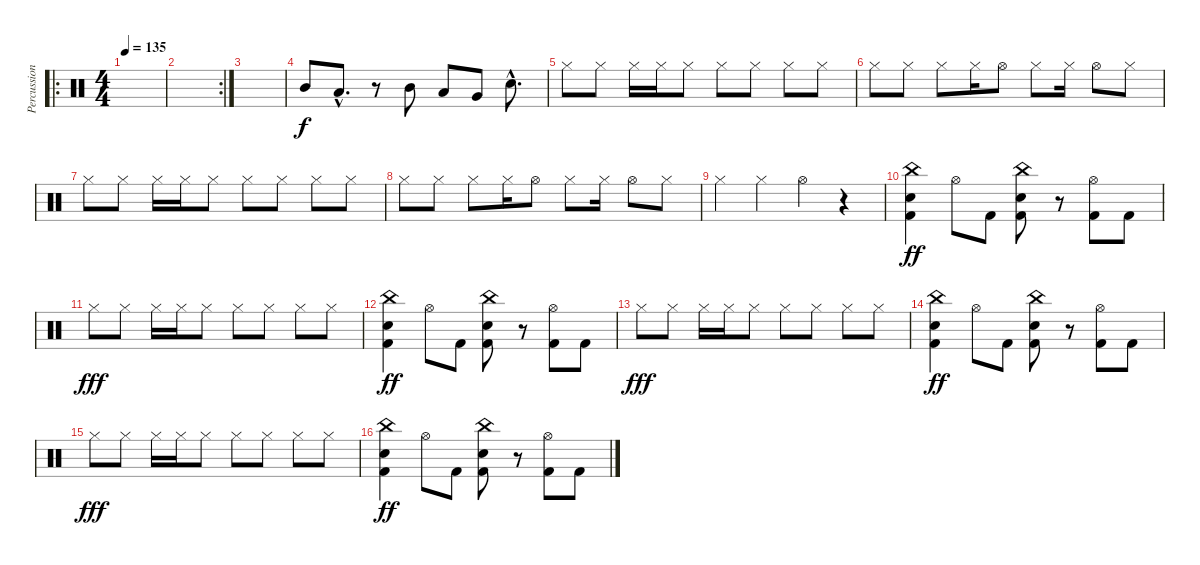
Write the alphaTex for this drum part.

\track ("Percussion" "Percussion") {instrument percussion}
\staff {score}
\articulation defaults
\ro
\ts (4 4)
\tempo 135
\clef neutral
\ks c
|
\rc 2
|
|
"Mid Tom (hit)".8 "Low Tom (hit)"{hac}.8{d} r.8 "Mid Tom (hit)".8 "Low Tom (hit)".8 "Very Low Tom (hit)".8 "Electric Snare (hit)"{hac}.8{d} |
"Hi-Hat (closed)".8 "Hi-Hat (closed)".8 "Hi-Hat (closed)".16 "Hi-Hat (closed)".16 "Hi-Hat (closed)".8 "Hi-Hat (closed)".8 "Hi-Hat (closed)".8 "Hi-Hat (closed)".8 "Hi-Hat (closed)".8 |
"Hi-Hat (closed)".8 "Hi-Hat (closed)".8 "Hi-Hat (closed)".8 "Hi-Hat (closed)".16 "Hi-Hat (open)".8 "Hi-Hat (closed)".8 "Hi-Hat (closed)".16 "Hi-Hat (open)".8 "Hi-Hat (closed)".8 |
"Hi-Hat (closed)".8 "Hi-Hat (closed)".8 "Hi-Hat (closed)".16 "Hi-Hat (closed)".16 "Hi-Hat (closed)".8 "Hi-Hat (closed)".8 "Hi-Hat (closed)".8 "Hi-Hat (closed)".8 "Hi-Hat (closed)".8 |
"Hi-Hat (closed)".8 "Hi-Hat (closed)".8 "Hi-Hat (closed)".8 "Hi-Hat (closed)".16 "Hi-Hat (open)".8 "Hi-Hat (closed)".8 "Hi-Hat (closed)".16 "Hi-Hat (open)".8 "Hi-Hat (closed)".8 |
"Hi-Hat (closed)".4 "Hi-Hat (closed)".4 "Hi-Hat (open)".4 r.4 |
("China (hit)" "Snare (hit) 2" "Kick (hit) 2").4{dy ff} "Hi-Hat (open)".8 "Kick (hit) 2".8 ("China (hit)" "Snare (hit) 2" "Kick (hit) 2").8 r.8 ("Hi-Hat (open)" "Kick (hit) 2").8 "Kick (hit) 2".8 |
"Hi-Hat (closed)".8{dy fff} "Hi-Hat (closed)".8 "Hi-Hat (closed)".16 "Hi-Hat (closed)".16 "Hi-Hat (closed)".8 "Hi-Hat (closed)".8 "Hi-Hat (closed)".8 "Hi-Hat (closed)".8 "Hi-Hat (closed)".8 |
("China (hit)" "Snare (hit) 2" "Kick (hit) 2").4{dy ff} "Hi-Hat (open)".8 "Kick (hit) 2".8 ("China (hit)" "Snare (hit) 2" "Kick (hit) 2").8 r.8 ("Hi-Hat (open)" "Kick (hit) 2").8 "Kick (hit) 2".8 |
"Hi-Hat (closed)".8{dy fff} "Hi-Hat (closed)".8 "Hi-Hat (closed)".16 "Hi-Hat (closed)".16 "Hi-Hat (closed)".8 "Hi-Hat (closed)".8 "Hi-Hat (closed)".8 "Hi-Hat (closed)".8 "Hi-Hat (closed)".8 |
("China (hit)" "Snare (hit) 2" "Kick (hit) 2").4{dy ff} "Hi-Hat (open)".8 "Kick (hit) 2".8 ("China (hit)" "Snare (hit) 2" "Kick (hit) 2").8 r.8 ("Hi-Hat (open)" "Kick (hit) 2").8 "Kick (hit) 2".8 |
"Hi-Hat (closed)".8{dy fff} "Hi-Hat (closed)".8 "Hi-Hat (closed)".16 "Hi-Hat (closed)".16 "Hi-Hat (closed)".8 "Hi-Hat (closed)".8 "Hi-Hat (closed)".8 "Hi-Hat (closed)".8 "Hi-Hat (closed)".8 |
("China (hit)" "Snare (hit) 2" "Kick (hit) 2").4{dy ff} "Hi-Hat (open)".8 "Kick (hit) 2".8 ("China (hit)" "Snare (hit) 2" "Kick (hit) 2").8 r.8 ("Hi-Hat (open)" "Kick (hit) 2").8 "Kick (hit) 2".8
